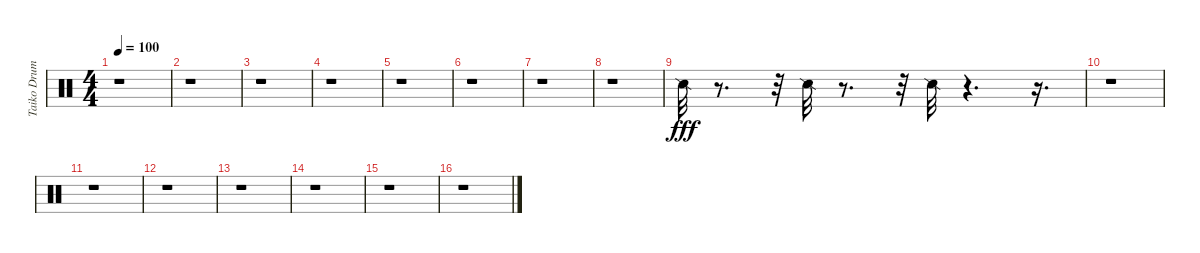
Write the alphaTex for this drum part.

\track ("Taiko Drums" "Taiko Drum") {instrument percussion}
\staff {score}
\articulation defaults
\ts (4 4)
\tempo 100
\clef neutral
\ks c
r.1{dy fff} |
r.1 |
r.1 |
r.1 |
r.1 |
r.1 |
r.1 |
r.1 |
"Snare (side stick) 2".32 r.8{d} r.32 "Snare (side stick) 2".32 r.8{d} r.32 "Snare (side stick) 2".32 r.4{d} r.16{d} |
r.1 |
r.1 |
r.1 |
r.1 |
r.1 |
r.1 |
r.1
